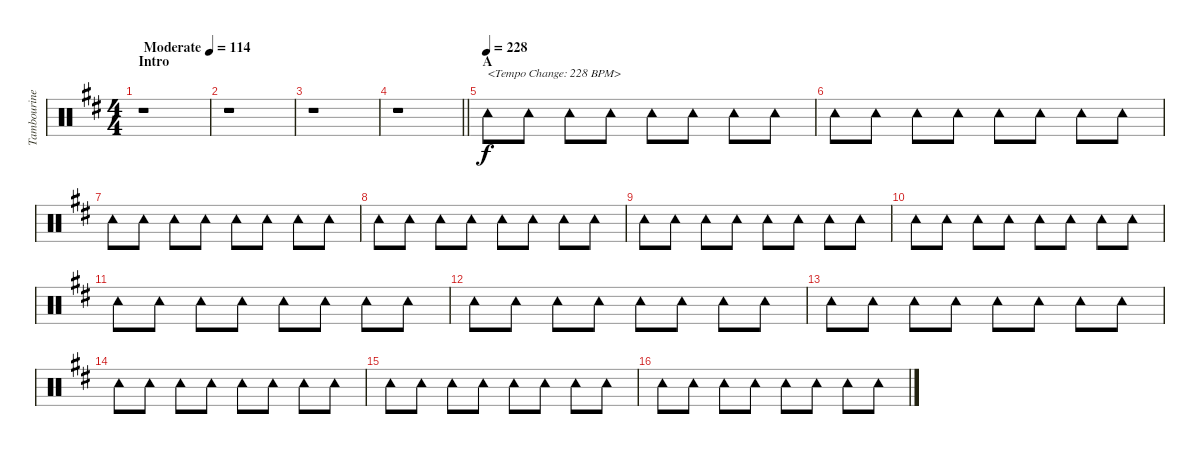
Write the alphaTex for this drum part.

\track ("Tambourine" "Tambourine") {instrument percussion}
\staff {score}
\articulation defaults
\ts (4 4)
\section ("" "Intro")
\tempo (114 "Moderate")
\clef neutral
\ks d
r.1{dy f} |
r.1 |
r.1 |
\barLineRight lightlight
r.1 |
\section ("" "A")
\tempo (228)
"Tambourine (hit)".8{txt "<Tempo Change: 228 BPM>"} "Tambourine (hit)".8 "Tambourine (hit)".8 "Tambourine (hit)".8 "Tambourine (hit)".8 "Tambourine (hit)".8 "Tambourine (hit)".8 "Tambourine (hit)".8 |
"Tambourine (hit)".8 "Tambourine (hit)".8 "Tambourine (hit)".8 "Tambourine (hit)".8 "Tambourine (hit)".8 "Tambourine (hit)".8 "Tambourine (hit)".8 "Tambourine (hit)".8 |
"Tambourine (hit)".8 "Tambourine (hit)".8 "Tambourine (hit)".8 "Tambourine (hit)".8 "Tambourine (hit)".8 "Tambourine (hit)".8 "Tambourine (hit)".8 "Tambourine (hit)".8 |
"Tambourine (hit)".8 "Tambourine (hit)".8 "Tambourine (hit)".8 "Tambourine (hit)".8 "Tambourine (hit)".8 "Tambourine (hit)".8 "Tambourine (hit)".8 "Tambourine (hit)".8 |
"Tambourine (hit)".8 "Tambourine (hit)".8 "Tambourine (hit)".8 "Tambourine (hit)".8 "Tambourine (hit)".8 "Tambourine (hit)".8 "Tambourine (hit)".8 "Tambourine (hit)".8 |
"Tambourine (hit)".8 "Tambourine (hit)".8 "Tambourine (hit)".8 "Tambourine (hit)".8 "Tambourine (hit)".8 "Tambourine (hit)".8 "Tambourine (hit)".8 "Tambourine (hit)".8 |
"Tambourine (hit)".8 "Tambourine (hit)".8 "Tambourine (hit)".8 "Tambourine (hit)".8 "Tambourine (hit)".8 "Tambourine (hit)".8 "Tambourine (hit)".8 "Tambourine (hit)".8 |
"Tambourine (hit)".8 "Tambourine (hit)".8 "Tambourine (hit)".8 "Tambourine (hit)".8 "Tambourine (hit)".8 "Tambourine (hit)".8 "Tambourine (hit)".8 "Tambourine (hit)".8 |
"Tambourine (hit)".8 "Tambourine (hit)".8 "Tambourine (hit)".8 "Tambourine (hit)".8 "Tambourine (hit)".8 "Tambourine (hit)".8 "Tambourine (hit)".8 "Tambourine (hit)".8 |
"Tambourine (hit)".8 "Tambourine (hit)".8 "Tambourine (hit)".8 "Tambourine (hit)".8 "Tambourine (hit)".8 "Tambourine (hit)".8 "Tambourine (hit)".8 "Tambourine (hit)".8 |
"Tambourine (hit)".8 "Tambourine (hit)".8 "Tambourine (hit)".8 "Tambourine (hit)".8 "Tambourine (hit)".8 "Tambourine (hit)".8 "Tambourine (hit)".8 "Tambourine (hit)".8 |
"Tambourine (hit)".8 "Tambourine (hit)".8 "Tambourine (hit)".8 "Tambourine (hit)".8 "Tambourine (hit)".8 "Tambourine (hit)".8 "Tambourine (hit)".8 "Tambourine (hit)".8
